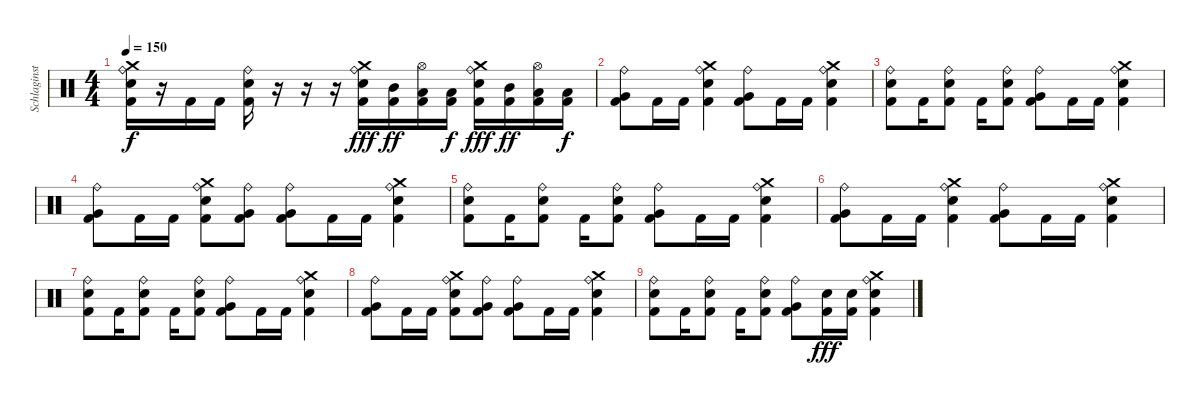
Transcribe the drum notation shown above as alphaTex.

\track ("Schlaginstrumente - Auswahl" "Schlaginst") {instrument percussion}
\staff {score}
\articulation defaults
\ts (4 4)
\tempo 150
\clef neutral
\ks c
("Ride (bell)" "Crash medium (hit)" "Electric Snare (hit)" "Kick (hit) 2").16{dy f} r.16 "Kick (hit) 2".16 "Kick (hit) 2".16 ("Ride (bell)" "Electric Snare (hit)" "Kick (hit) 2").16 r.16 r.16 r.16 ("Ride (bell)" "Crash medium (hit)" "Electric Snare (hit)" "Kick (hit) 2").16{dy fff} ("Mid Tom (hit)" "Kick (hit) 2").16{dy ff} ("Hi-Hat (open)" "Low Tom (hit)" "Kick (hit) 2").16 ("Low Floor Tom (hit)" "Kick (hit) 2").16{dy f} ("Ride (bell)" "Crash medium (hit)" "Electric Snare (hit)" "Kick (hit) 2").16{dy fff} ("Mid Tom (hit)" "Kick (hit) 2").16{dy ff} ("Hi-Hat (open)" "Low Tom (hit)" "Kick (hit) 2").16 ("Low Floor Tom (hit)" "Kick (hit) 2").16{dy f} |
("Ride (bell)" "Very Low Tom (hit)" "Kick (hit) 2").8 "Kick (hit) 2".16 "Kick (hit) 2".16 ("Ride (bell)" "Crash medium (hit)" "Electric Snare (hit)" "Kick (hit) 2").4 ("Ride (bell)" "Very Low Tom (hit)" "Kick (hit) 2").8 "Kick (hit) 2".16 "Kick (hit) 2".16 ("Ride (bell)" "Crash medium (hit)" "Electric Snare (hit)" "Kick (hit) 2").4 |
("Ride (bell)" "Electric Snare (hit)" "Kick (hit) 2").8 "Kick (hit) 2".16 ("Ride (bell)" "Electric Snare (hit)" "Kick (hit) 2").8 "Kick (hit) 2".16 ("Ride (bell)" "Electric Snare (hit)" "Kick (hit) 2").8 ("Ride (bell)" "Very Low Tom (hit)" "Kick (hit) 2").8 "Kick (hit) 2".16 "Kick (hit) 2".16 ("Ride (bell)" "Crash medium (hit)" "Electric Snare (hit)" "Kick (hit) 2").4 |
("Ride (bell)" "Very Low Tom (hit)" "Kick (hit) 2").8 "Kick (hit) 2".16 "Kick (hit) 2".16 ("Ride (bell)" "Crash medium (hit)" "Electric Snare (hit)" "Kick (hit) 2").8 ("Ride (bell)" "Very Low Tom (hit)" "Kick (hit) 2").8 ("Ride (bell)" "Very Low Tom (hit)" "Kick (hit) 2").8 "Kick (hit) 2".16 "Kick (hit) 2".16 ("Ride (bell)" "Crash medium (hit)" "Electric Snare (hit)" "Kick (hit) 2").4 |
("Ride (bell)" "Electric Snare (hit)" "Kick (hit) 2").8 "Kick (hit) 2".16 ("Ride (bell)" "Electric Snare (hit)" "Kick (hit) 2").8 "Kick (hit) 2".16 ("Ride (bell)" "Electric Snare (hit)" "Kick (hit) 2").8 ("Ride (bell)" "Very Low Tom (hit)" "Kick (hit) 2").8 "Kick (hit) 2".16 "Kick (hit) 2".16 ("Ride (bell)" "Crash medium (hit)" "Electric Snare (hit)" "Kick (hit) 2").4 |
("Ride (bell)" "Very Low Tom (hit)" "Kick (hit) 2").8 "Kick (hit) 2".16 "Kick (hit) 2".16 ("Ride (bell)" "Crash medium (hit)" "Electric Snare (hit)" "Kick (hit) 2").4 ("Ride (bell)" "Very Low Tom (hit)" "Kick (hit) 2").8 "Kick (hit) 2".16 "Kick (hit) 2".16 ("Ride (bell)" "Crash medium (hit)" "Electric Snare (hit)" "Kick (hit) 2").4 |
("Ride (bell)" "Electric Snare (hit)" "Kick (hit) 2").8 "Kick (hit) 2".16 ("Ride (bell)" "Electric Snare (hit)" "Kick (hit) 2").8 "Kick (hit) 2".16 ("Ride (bell)" "Electric Snare (hit)" "Kick (hit) 2").8 ("Ride (bell)" "Very Low Tom (hit)" "Kick (hit) 2").8 "Kick (hit) 2".16 "Kick (hit) 2".16 ("Ride (bell)" "Crash medium (hit)" "Electric Snare (hit)" "Kick (hit) 2").4 |
("Ride (bell)" "Very Low Tom (hit)" "Kick (hit) 2").8 "Kick (hit) 2".16 "Kick (hit) 2".16 ("Ride (bell)" "Crash medium (hit)" "Electric Snare (hit)" "Kick (hit) 2").8 ("Ride (bell)" "Very Low Tom (hit)" "Kick (hit) 2").8 ("Ride (bell)" "Very Low Tom (hit)" "Kick (hit) 2").8 "Kick (hit) 2".16 "Kick (hit) 2".16 ("Ride (bell)" "Crash medium (hit)" "Electric Snare (hit)" "Kick (hit) 2").4 |
("Ride (bell)" "Electric Snare (hit)" "Kick (hit) 2").8 "Kick (hit) 2".16 ("Ride (bell)" "Electric Snare (hit)" "Kick (hit) 2").8 "Kick (hit) 2".16 ("Ride (bell)" "Electric Snare (hit)" "Kick (hit) 2").8 ("Ride (bell)" "Very Low Tom (hit)" "Kick (hit) 2").8 ("Electric Snare (hit)" "Kick (hit) 2").16{dy fff} ("Electric Snare (hit)" "Kick (hit) 2").16 ("Ride (bell)" "Crash medium (hit)" "Electric Snare (hit)" "Kick (hit) 2").4
